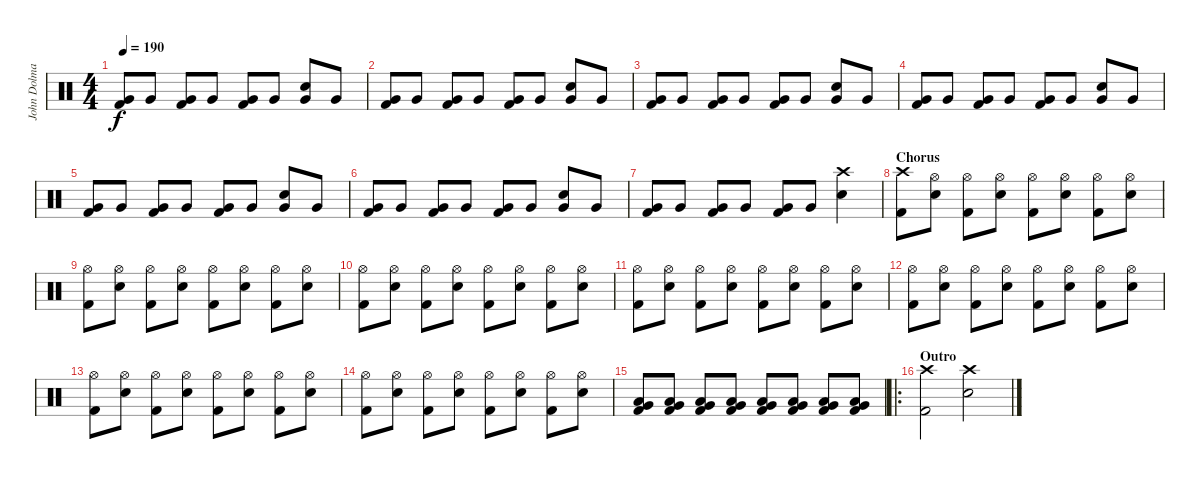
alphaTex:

\track ("John Dolmayan" "John Dolma") {instrument percussion}
\staff {score}
\articulation defaults
\ts (4 4)
\tempo 190
\clef neutral
\ks c
("Very Low Tom (hit)" "Kick (hit) 2").8{dy f} "Very Low Tom (hit)".8 ("Very Low Tom (hit)" "Kick (hit) 2").8 "Very Low Tom (hit)".8 ("Very Low Tom (hit)" "Kick (hit) 2").8 "Very Low Tom (hit)".8 ("Very Low Tom (hit)" "Electric Snare (hit)").8 "Very Low Tom (hit)".8 |
("Very Low Tom (hit)" "Kick (hit) 2").8 "Very Low Tom (hit)".8 ("Very Low Tom (hit)" "Kick (hit) 2").8 "Very Low Tom (hit)".8 ("Very Low Tom (hit)" "Kick (hit) 2").8 "Very Low Tom (hit)".8 ("Very Low Tom (hit)" "Electric Snare (hit)").8 "Very Low Tom (hit)".8 |
("Very Low Tom (hit)" "Kick (hit) 2").8 "Very Low Tom (hit)".8 ("Very Low Tom (hit)" "Kick (hit) 2").8 "Very Low Tom (hit)".8 ("Very Low Tom (hit)" "Kick (hit) 2").8 "Very Low Tom (hit)".8 ("Very Low Tom (hit)" "Electric Snare (hit)").8 "Very Low Tom (hit)".8 |
("Very Low Tom (hit)" "Kick (hit) 2").8 "Very Low Tom (hit)".8 ("Very Low Tom (hit)" "Kick (hit) 2").8 "Very Low Tom (hit)".8 ("Very Low Tom (hit)" "Kick (hit) 2").8 "Very Low Tom (hit)".8 ("Very Low Tom (hit)" "Electric Snare (hit)").8 "Very Low Tom (hit)".8 |
("Very Low Tom (hit)" "Kick (hit) 2").8 "Very Low Tom (hit)".8 ("Very Low Tom (hit)" "Kick (hit) 2").8 "Very Low Tom (hit)".8 ("Very Low Tom (hit)" "Kick (hit) 2").8 "Very Low Tom (hit)".8 ("Very Low Tom (hit)" "Electric Snare (hit)").8 "Very Low Tom (hit)".8 |
("Very Low Tom (hit)" "Kick (hit) 2").8 "Very Low Tom (hit)".8 ("Very Low Tom (hit)" "Kick (hit) 2").8 "Very Low Tom (hit)".8 ("Very Low Tom (hit)" "Kick (hit) 2").8 "Very Low Tom (hit)".8 ("Very Low Tom (hit)" "Electric Snare (hit)").8 "Very Low Tom (hit)".8 |
("Very Low Tom (hit)" "Kick (hit) 2").8 "Very Low Tom (hit)".8 ("Very Low Tom (hit)" "Kick (hit) 2").8 "Very Low Tom (hit)".8 ("Very Low Tom (hit)" "Kick (hit) 2").8 "Very Low Tom (hit)".8 ("Crash high (hit)" "Electric Snare (hit)").4 |
\section ("" "Chorus")
("Crash high (hit)" "Kick (hit) 2").8 ("Hi-Hat (open)" "Electric Snare (hit)").8 ("Hi-Hat (open)" "Kick (hit) 2").8 ("Hi-Hat (open)" "Electric Snare (hit)").8 ("Hi-Hat (open)" "Kick (hit) 2").8 ("Hi-Hat (open)" "Electric Snare (hit)").8 ("Hi-Hat (open)" "Kick (hit) 2").8 ("Hi-Hat (open)" "Electric Snare (hit)").8 |
("Hi-Hat (open)" "Kick (hit) 2").8 ("Hi-Hat (open)" "Electric Snare (hit)").8 ("Hi-Hat (open)" "Kick (hit) 2").8 ("Hi-Hat (open)" "Electric Snare (hit)").8 ("Hi-Hat (open)" "Kick (hit) 2").8 ("Hi-Hat (open)" "Electric Snare (hit)").8 ("Hi-Hat (open)" "Kick (hit) 2").8 ("Hi-Hat (open)" "Electric Snare (hit)").8 |
("Hi-Hat (open)" "Kick (hit) 2").8 ("Hi-Hat (open)" "Electric Snare (hit)").8 ("Hi-Hat (open)" "Kick (hit) 2").8 ("Hi-Hat (open)" "Electric Snare (hit)").8 ("Hi-Hat (open)" "Kick (hit) 2").8 ("Hi-Hat (open)" "Electric Snare (hit)").8 ("Hi-Hat (open)" "Kick (hit) 2").8 ("Hi-Hat (open)" "Electric Snare (hit)").8 |
("Hi-Hat (open)" "Kick (hit) 2").8 ("Hi-Hat (open)" "Electric Snare (hit)").8 ("Hi-Hat (open)" "Kick (hit) 2").8 ("Hi-Hat (open)" "Electric Snare (hit)").8 ("Hi-Hat (open)" "Kick (hit) 2").8 ("Hi-Hat (open)" "Electric Snare (hit)").8 ("Hi-Hat (open)" "Kick (hit) 2").8 ("Hi-Hat (open)" "Electric Snare (hit)").8 |
("Hi-Hat (open)" "Kick (hit) 2").8 ("Hi-Hat (open)" "Electric Snare (hit)").8 ("Hi-Hat (open)" "Kick (hit) 2").8 ("Hi-Hat (open)" "Electric Snare (hit)").8 ("Hi-Hat (open)" "Kick (hit) 2").8 ("Hi-Hat (open)" "Electric Snare (hit)").8 ("Hi-Hat (open)" "Kick (hit) 2").8 ("Hi-Hat (open)" "Electric Snare (hit)").8 |
("Hi-Hat (open)" "Kick (hit) 2").8 ("Hi-Hat (open)" "Electric Snare (hit)").8 ("Hi-Hat (open)" "Kick (hit) 2").8 ("Hi-Hat (open)" "Electric Snare (hit)").8 ("Hi-Hat (open)" "Kick (hit) 2").8 ("Hi-Hat (open)" "Electric Snare (hit)").8 ("Hi-Hat (open)" "Kick (hit) 2").8 ("Hi-Hat (open)" "Electric Snare (hit)").8 |
("Hi-Hat (open)" "Kick (hit) 2").8 ("Hi-Hat (open)" "Electric Snare (hit)").8 ("Hi-Hat (open)" "Kick (hit) 2").8 ("Hi-Hat (open)" "Electric Snare (hit)").8 ("Hi-Hat (open)" "Kick (hit) 2").8 ("Hi-Hat (open)" "Electric Snare (hit)").8 ("Hi-Hat (open)" "Kick (hit) 2").8 ("Hi-Hat (open)" "Electric Snare (hit)").8 |
("Very Low Tom (hit)" "Low Tom (hit)" "Kick (hit) 2").8 ("Very Low Tom (hit)" "Low Tom (hit)" "Kick (hit) 2").8 ("Very Low Tom (hit)" "Low Tom (hit)" "Kick (hit) 2").8 ("Very Low Tom (hit)" "Low Tom (hit)" "Kick (hit) 2").8 ("Very Low Tom (hit)" "Low Tom (hit)" "Kick (hit) 2").8 ("Very Low Tom (hit)" "Low Tom (hit)" "Kick (hit) 2").8 ("Very Low Tom (hit)" "Low Tom (hit)" "Kick (hit) 2").8 ("Very Low Tom (hit)" "Low Tom (hit)" "Kick (hit) 2").8 |
\ro
\section ("" "Outro")
("Crash high (hit)" "Kick (hit) 2").2 ("Crash high (hit)" "Electric Snare (hit)").2
